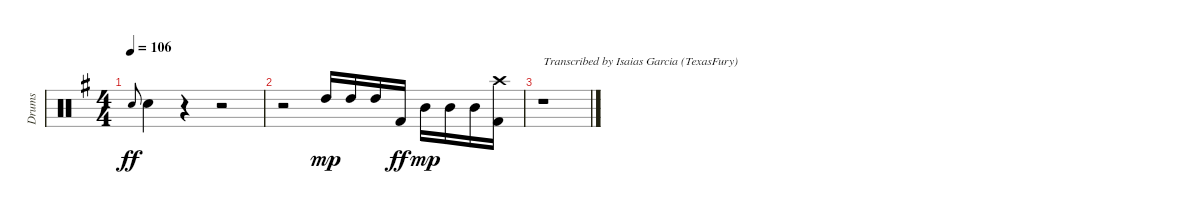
\track ("Drums" "Drums") {instrument percussion}
\staff {score}
\articulation defaults
\ts (4 4)
\tempo 106
\clef neutral
\ks g "Electric Snare (hit)".8{gr onbeat dy ff} "Electric Snare (hit)".4
r.4 r.2 |
r.2 "High Tom (hit)".16{dy mp} "High Tom (hit)".16 "High Tom (hit)".16 "Kick (hit) 2".16{dy ff} "Mid Tom (hit)".16{dy mp} "Mid Tom (hit)".16 "Mid Tom (hit)".16 ("Kick (hit) 2" "Crash high (hit)").16{volume 0} |
r.1{txt "Transcribed by Isaias Garcia (TexasFury)"}
